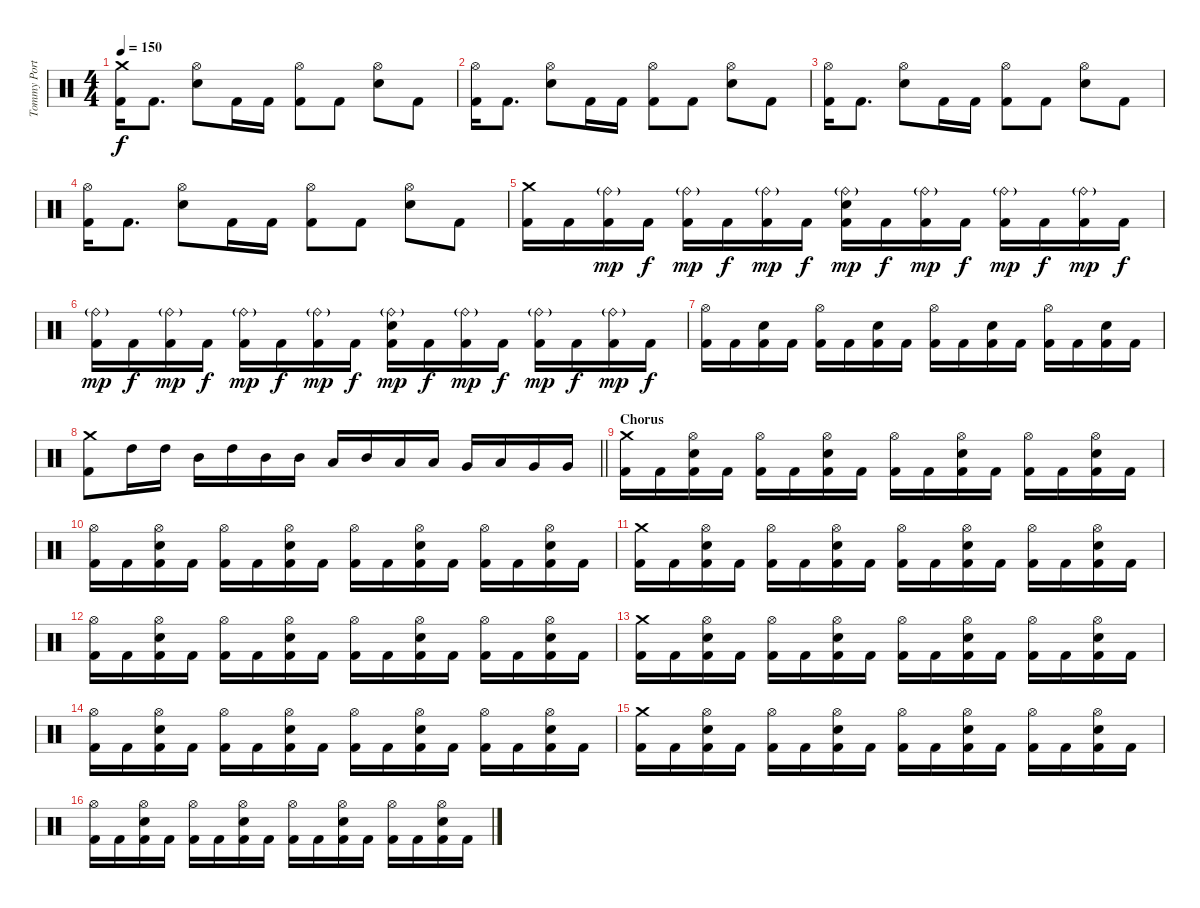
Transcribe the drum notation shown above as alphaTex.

\track ("Tommy Portimo" "Tommy Port") {instrument percussion}
\staff {score}
\articulation defaults
\ts (4 4)
\tempo 150
\clef neutral
\ks c
("Crash medium (hit)" "Kick (hit) 2").16{dy f} "Kick (hit) 2".8{d} ("Hi-Hat (open)" "Electric Snare (hit)").8 "Kick (hit) 2".16 "Kick (hit) 2".16 ("Hi-Hat (open)" "Kick (hit) 2").8 "Kick (hit) 2".8 ("Hi-Hat (open)" "Electric Snare (hit)").8 "Kick (hit) 2".8 |
("Hi-Hat (open)" "Kick (hit) 2").16 "Kick (hit) 2".8{d} ("Hi-Hat (open)" "Electric Snare (hit)").8 "Kick (hit) 2".16 "Kick (hit) 2".16 ("Hi-Hat (open)" "Kick (hit) 2").8 "Kick (hit) 2".8 ("Hi-Hat (open)" "Electric Snare (hit)").8 "Kick (hit) 2".8 |
("Hi-Hat (open)" "Kick (hit) 2").16 "Kick (hit) 2".8{d} ("Hi-Hat (open)" "Electric Snare (hit)").8 "Kick (hit) 2".16 "Kick (hit) 2".16 ("Hi-Hat (open)" "Kick (hit) 2").8 "Kick (hit) 2".8 ("Hi-Hat (open)" "Electric Snare (hit)").8 "Kick (hit) 2".8 |
("Hi-Hat (open)" "Kick (hit) 2").16 "Kick (hit) 2".8{d} ("Hi-Hat (open)" "Electric Snare (hit)").8 "Kick (hit) 2".16 "Kick (hit) 2".16 ("Hi-Hat (open)" "Kick (hit) 2").8 "Kick (hit) 2".8 ("Hi-Hat (open)" "Electric Snare (hit)").8 "Kick (hit) 2".8 |
("Crash medium (hit)" "Kick (hit) 2").16 "Kick (hit) 2".16 ("Ride (bell)"{g} "Kick (hit) 2").16{dy mp} "Kick (hit) 2".16{dy f} ("Ride (bell)"{g} "Kick (hit) 2").16{dy mp} "Kick (hit) 2".16{dy f} ("Ride (bell)"{g} "Kick (hit) 2").16{dy mp} "Kick (hit) 2".16{dy f} ("Ride (bell)"{g} "Snare (hit) 2" "Kick (hit) 2").16{dy mp} "Kick (hit) 2".16{dy f} ("Ride (bell)"{g} "Kick (hit) 2").16{dy mp} "Kick (hit) 2".16{dy f} ("Ride (bell)"{g} "Kick (hit) 2").16{dy mp} "Kick (hit) 2".16{dy f} ("Ride (bell)"{g} "Kick (hit) 2").16{dy mp} "Kick (hit) 2".16{dy f} |
("Ride (bell)"{g} "Kick (hit) 2").16{dy mp} "Kick (hit) 2".16{dy f} ("Ride (bell)"{g} "Kick (hit) 2").16{dy mp} "Kick (hit) 2".16{dy f} ("Ride (bell)"{g} "Kick (hit) 2").16{dy mp} "Kick (hit) 2".16{dy f} ("Ride (bell)"{g} "Kick (hit) 2").16{dy mp} "Kick (hit) 2".16{dy f} ("Ride (bell)"{g} "Snare (hit) 2" "Kick (hit) 2").16{dy mp} "Kick (hit) 2".16{dy f} ("Ride (bell)"{g} "Kick (hit) 2").16{dy mp} "Kick (hit) 2".16{dy f} ("Ride (bell)"{g} "Kick (hit) 2").16{dy mp} "Kick (hit) 2".16{dy f} ("Ride (bell)"{g} "Kick (hit) 2").16{dy mp} "Kick (hit) 2".16{dy f} |
("Hi-Hat (open)" "Kick (hit) 2").16 "Kick (hit) 2".16 ("Snare (hit) 2" "Kick (hit) 2").16 "Kick (hit) 2".16 ("Hi-Hat (open)" "Kick (hit) 2").16 "Kick (hit) 2".16 ("Snare (hit) 2" "Kick (hit) 2").16 "Kick (hit) 2".16 ("Hi-Hat (open)" "Kick (hit) 2").16 "Kick (hit) 2".16 ("Snare (hit) 2" "Kick (hit) 2").16 "Kick (hit) 2".16 ("Hi-Hat (open)" "Kick (hit) 2").16 "Kick (hit) 2".16 ("Snare (hit) 2" "Kick (hit) 2").16 "Kick (hit) 2".16 |
\barLineRight lightlight
("Crash medium (hit)" "Kick (hit) 2").8 "High Tom (hit)".16 "High Tom (hit)".16 "Mid Tom (hit)".16 "High Tom (hit)".16 "Mid Tom (hit)".16 "Mid Tom (hit)".16 "Low Tom (hit)".16 "Mid Tom (hit)".16 "Low Tom (hit)".16 "Low Tom (hit)".16 "Very Low Tom (hit)".16 "Low Tom (hit)".16 "Very Low Tom (hit)".16 "Very Low Tom (hit)".16 |
\section ("" "Chorus")
("Crash medium (hit)" "Kick (hit) 2").16 "Kick (hit) 2".16 ("Hi-Hat (open)" "Electric Snare (hit)" "Kick (hit) 2").16 "Kick (hit) 2".16 ("Hi-Hat (open)" "Kick (hit) 2").16 "Kick (hit) 2".16 ("Hi-Hat (open)" "Electric Snare (hit)" "Kick (hit) 2").16 "Kick (hit) 2".16 ("Hi-Hat (open)" "Kick (hit) 2").16 "Kick (hit) 2".16 ("Hi-Hat (open)" "Electric Snare (hit)" "Kick (hit) 2").16 "Kick (hit) 2".16 ("Hi-Hat (open)" "Kick (hit) 2").16 "Kick (hit) 2".16 ("Hi-Hat (open)" "Electric Snare (hit)" "Kick (hit) 2").16 "Kick (hit) 2".16 |
("Hi-Hat (open)" "Kick (hit) 2").16 "Kick (hit) 2".16 ("Hi-Hat (open)" "Electric Snare (hit)" "Kick (hit) 2").16 "Kick (hit) 2".16 ("Hi-Hat (open)" "Kick (hit) 2").16 "Kick (hit) 2".16 ("Hi-Hat (open)" "Electric Snare (hit)" "Kick (hit) 2").16 "Kick (hit) 2".16 ("Hi-Hat (open)" "Kick (hit) 2").16 "Kick (hit) 2".16 ("Hi-Hat (open)" "Electric Snare (hit)" "Kick (hit) 2").16 "Kick (hit) 2".16 ("Hi-Hat (open)" "Kick (hit) 2").16 "Kick (hit) 2".16 ("Hi-Hat (open)" "Electric Snare (hit)" "Kick (hit) 2").16 "Kick (hit) 2".16 |
("Crash medium (hit)" "Kick (hit) 2").16 "Kick (hit) 2".16 ("Hi-Hat (open)" "Electric Snare (hit)" "Kick (hit) 2").16 "Kick (hit) 2".16 ("Hi-Hat (open)" "Kick (hit) 2").16 "Kick (hit) 2".16 ("Hi-Hat (open)" "Electric Snare (hit)" "Kick (hit) 2").16 "Kick (hit) 2".16 ("Hi-Hat (open)" "Kick (hit) 2").16 "Kick (hit) 2".16 ("Hi-Hat (open)" "Electric Snare (hit)" "Kick (hit) 2").16 "Kick (hit) 2".16 ("Hi-Hat (open)" "Kick (hit) 2").16 "Kick (hit) 2".16 ("Hi-Hat (open)" "Electric Snare (hit)" "Kick (hit) 2").16 "Kick (hit) 2".16 |
("Hi-Hat (open)" "Kick (hit) 2").16 "Kick (hit) 2".16 ("Hi-Hat (open)" "Electric Snare (hit)" "Kick (hit) 2").16 "Kick (hit) 2".16 ("Hi-Hat (open)" "Kick (hit) 2").16 "Kick (hit) 2".16 ("Hi-Hat (open)" "Electric Snare (hit)" "Kick (hit) 2").16 "Kick (hit) 2".16 ("Hi-Hat (open)" "Kick (hit) 2").16 "Kick (hit) 2".16 ("Hi-Hat (open)" "Electric Snare (hit)" "Kick (hit) 2").16 "Kick (hit) 2".16 ("Hi-Hat (open)" "Kick (hit) 2").16 "Kick (hit) 2".16 ("Hi-Hat (open)" "Electric Snare (hit)" "Kick (hit) 2").16 "Kick (hit) 2".16 |
("Crash medium (hit)" "Kick (hit) 2").16 "Kick (hit) 2".16 ("Hi-Hat (open)" "Electric Snare (hit)" "Kick (hit) 2").16 "Kick (hit) 2".16 ("Hi-Hat (open)" "Kick (hit) 2").16 "Kick (hit) 2".16 ("Hi-Hat (open)" "Electric Snare (hit)" "Kick (hit) 2").16 "Kick (hit) 2".16 ("Hi-Hat (open)" "Kick (hit) 2").16 "Kick (hit) 2".16 ("Hi-Hat (open)" "Electric Snare (hit)" "Kick (hit) 2").16 "Kick (hit) 2".16 ("Hi-Hat (open)" "Kick (hit) 2").16 "Kick (hit) 2".16 ("Hi-Hat (open)" "Electric Snare (hit)" "Kick (hit) 2").16 "Kick (hit) 2".16 |
("Hi-Hat (open)" "Kick (hit) 2").16 "Kick (hit) 2".16 ("Hi-Hat (open)" "Electric Snare (hit)" "Kick (hit) 2").16 "Kick (hit) 2".16 ("Hi-Hat (open)" "Kick (hit) 2").16 "Kick (hit) 2".16 ("Hi-Hat (open)" "Electric Snare (hit)" "Kick (hit) 2").16 "Kick (hit) 2".16 ("Hi-Hat (open)" "Kick (hit) 2").16 "Kick (hit) 2".16 ("Hi-Hat (open)" "Electric Snare (hit)" "Kick (hit) 2").16 "Kick (hit) 2".16 ("Hi-Hat (open)" "Kick (hit) 2").16 "Kick (hit) 2".16 ("Hi-Hat (open)" "Electric Snare (hit)" "Kick (hit) 2").16 "Kick (hit) 2".16 |
("Crash medium (hit)" "Kick (hit) 2").16 "Kick (hit) 2".16 ("Hi-Hat (open)" "Electric Snare (hit)" "Kick (hit) 2").16 "Kick (hit) 2".16 ("Hi-Hat (open)" "Kick (hit) 2").16 "Kick (hit) 2".16 ("Hi-Hat (open)" "Electric Snare (hit)" "Kick (hit) 2").16 "Kick (hit) 2".16 ("Hi-Hat (open)" "Kick (hit) 2").16 "Kick (hit) 2".16 ("Hi-Hat (open)" "Electric Snare (hit)" "Kick (hit) 2").16 "Kick (hit) 2".16 ("Hi-Hat (open)" "Kick (hit) 2").16 "Kick (hit) 2".16 ("Hi-Hat (open)" "Electric Snare (hit)" "Kick (hit) 2").16 "Kick (hit) 2".16 |
("Hi-Hat (open)" "Kick (hit) 2").16 "Kick (hit) 2".16 ("Hi-Hat (open)" "Electric Snare (hit)" "Kick (hit) 2").16 "Kick (hit) 2".16 ("Hi-Hat (open)" "Kick (hit) 2").16 "Kick (hit) 2".16 ("Hi-Hat (open)" "Electric Snare (hit)" "Kick (hit) 2").16 "Kick (hit) 2".16 ("Hi-Hat (open)" "Kick (hit) 2").16 "Kick (hit) 2".16 ("Hi-Hat (open)" "Electric Snare (hit)" "Kick (hit) 2").16 "Kick (hit) 2".16 ("Hi-Hat (open)" "Kick (hit) 2").16 "Kick (hit) 2".16 ("Hi-Hat (open)" "Electric Snare (hit)" "Kick (hit) 2").16 "Kick (hit) 2".16
